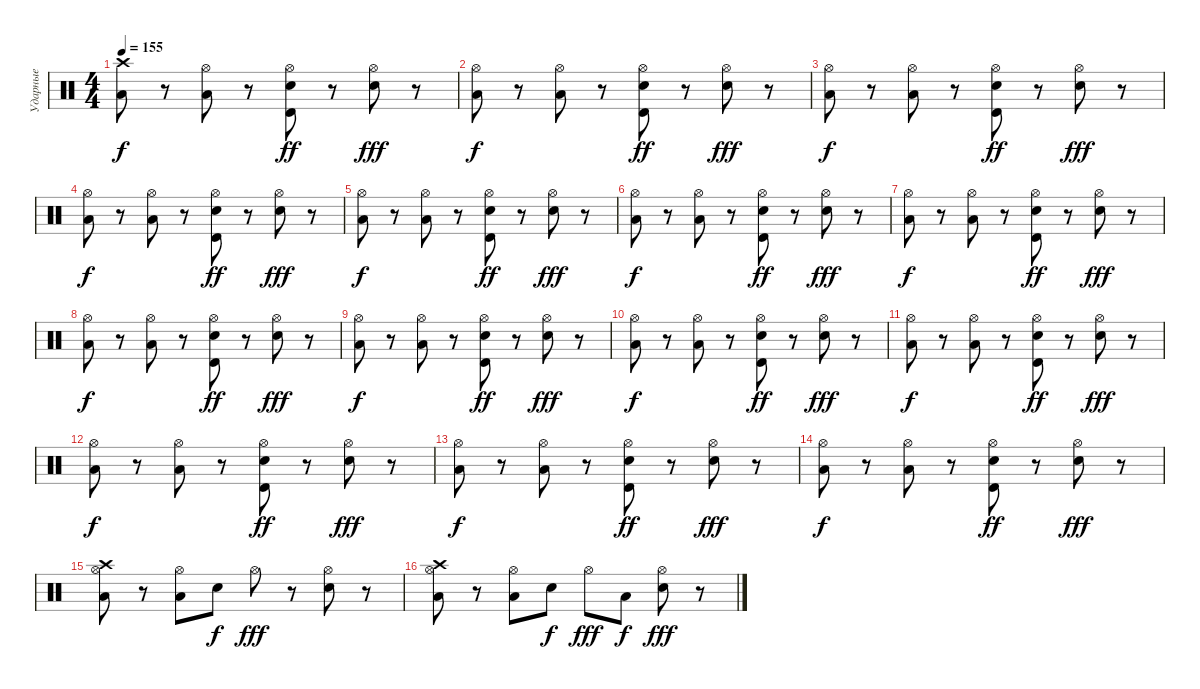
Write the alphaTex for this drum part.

\track ("Ударные" "Ударные") {instrument percussion}
\staff {score}
\articulation defaults
\ts (4 4)
\tempo 155
\clef neutral
\ks c
("Crash high (hit)" "Low Tom (hit)").8{dy f} r.8 ("Hi-Hat (open)" "Low Tom (hit)").8 r.8 ("Hi-Hat (open)" "Snare (hit) 2" "Timbale high (hit)").8{dy ff} r.8 ("Hi-Hat (open)" "Snare (hit) 2").8{dy fff} r.8 |
("Hi-Hat (open)" "Low Tom (hit)").8{dy f} r.8 ("Hi-Hat (open)" "Low Tom (hit)").8 r.8 ("Hi-Hat (open)" "Snare (hit) 2" "Timbale high (hit)").8{dy ff} r.8 ("Hi-Hat (open)" "Snare (hit) 2").8{dy fff} r.8 |
("Hi-Hat (open)" "Low Tom (hit)").8{dy f} r.8 ("Hi-Hat (open)" "Low Tom (hit)").8 r.8 ("Hi-Hat (open)" "Snare (hit) 2" "Timbale high (hit)").8{dy ff} r.8 ("Hi-Hat (open)" "Snare (hit) 2").8{dy fff} r.8 |
("Hi-Hat (open)" "Low Tom (hit)").8{dy f} r.8 ("Hi-Hat (open)" "Low Tom (hit)").8 r.8 ("Hi-Hat (open)" "Snare (hit) 2" "Timbale high (hit)").8{dy ff} r.8 ("Hi-Hat (open)" "Snare (hit) 2").8{dy fff} r.8 |
("Hi-Hat (open)" "Low Tom (hit)").8{dy f} r.8 ("Hi-Hat (open)" "Low Tom (hit)").8 r.8 ("Hi-Hat (open)" "Snare (hit) 2" "Timbale high (hit)").8{dy ff} r.8 ("Hi-Hat (open)" "Snare (hit) 2").8{dy fff} r.8 |
("Hi-Hat (open)" "Low Tom (hit)").8{dy f} r.8 ("Hi-Hat (open)" "Low Tom (hit)").8 r.8 ("Hi-Hat (open)" "Snare (hit) 2" "Timbale high (hit)").8{dy ff} r.8 ("Hi-Hat (open)" "Snare (hit) 2").8{dy fff} r.8 |
("Hi-Hat (open)" "Low Tom (hit)").8{dy f} r.8 ("Hi-Hat (open)" "Low Tom (hit)").8 r.8 ("Hi-Hat (open)" "Snare (hit) 2" "Timbale high (hit)").8{dy ff} r.8 ("Hi-Hat (open)" "Snare (hit) 2").8{dy fff} r.8 |
("Hi-Hat (open)" "Low Tom (hit)").8{dy f} r.8 ("Hi-Hat (open)" "Low Tom (hit)").8 r.8 ("Hi-Hat (open)" "Snare (hit) 2" "Timbale high (hit)").8{dy ff} r.8 ("Hi-Hat (open)" "Snare (hit) 2").8{dy fff} r.8 |
("Hi-Hat (open)" "Low Tom (hit)").8{dy f} r.8 ("Hi-Hat (open)" "Low Tom (hit)").8 r.8 ("Hi-Hat (open)" "Snare (hit) 2" "Timbale high (hit)").8{dy ff} r.8 ("Hi-Hat (open)" "Snare (hit) 2").8{dy fff} r.8 |
("Hi-Hat (open)" "Low Tom (hit)").8{dy f} r.8 ("Hi-Hat (open)" "Low Tom (hit)").8 r.8 ("Hi-Hat (open)" "Snare (hit) 2" "Timbale high (hit)").8{dy ff} r.8 ("Hi-Hat (open)" "Snare (hit) 2").8{dy fff} r.8 |
("Hi-Hat (open)" "Low Tom (hit)").8{dy f} r.8 ("Hi-Hat (open)" "Low Tom (hit)").8 r.8 ("Hi-Hat (open)" "Snare (hit) 2" "Timbale high (hit)").8{dy ff} r.8 ("Hi-Hat (open)" "Snare (hit) 2").8{dy fff} r.8 |
("Hi-Hat (open)" "Low Tom (hit)").8{dy f} r.8 ("Hi-Hat (open)" "Low Tom (hit)").8 r.8 ("Hi-Hat (open)" "Snare (hit) 2" "Timbale high (hit)").8{dy ff} r.8 ("Hi-Hat (open)" "Snare (hit) 2").8{dy fff} r.8 |
("Hi-Hat (open)" "Low Tom (hit)").8{dy f} r.8 ("Hi-Hat (open)" "Low Tom (hit)").8 r.8 ("Hi-Hat (open)" "Snare (hit) 2" "Timbale high (hit)").8{dy ff} r.8 ("Hi-Hat (open)" "Snare (hit) 2").8{dy fff} r.8 |
("Hi-Hat (open)" "Low Tom (hit)").8{dy f} r.8 ("Hi-Hat (open)" "Low Tom (hit)").8 r.8 ("Hi-Hat (open)" "Snare (hit) 2" "Timbale high (hit)").8{dy ff} r.8 ("Hi-Hat (open)" "Snare (hit) 2").8{dy fff} r.8 |
("Hi-Hat (open)" "Crash high (hit)" "Low Floor Tom (hit)").8 r.8 ("Hi-Hat (open)" "Low Tom (hit)").8 "Snare (hit) 2".8{dy f} "Hi-Hat (open)".8{dy fff} r.8 ("Hi-Hat (open)" "Snare (hit) 2").8 r.8 |
("Hi-Hat (open)" "Crash high (hit)" "Low Floor Tom (hit)").8 r.8 ("Hi-Hat (open)" "Low Tom (hit)").8 "Snare (hit) 2".8{dy f} "Hi-Hat (open)".8{dy fff} "Low Tom (hit)".8{dy f} ("Hi-Hat (open)" "Snare (hit) 2").8{dy fff} r.8
